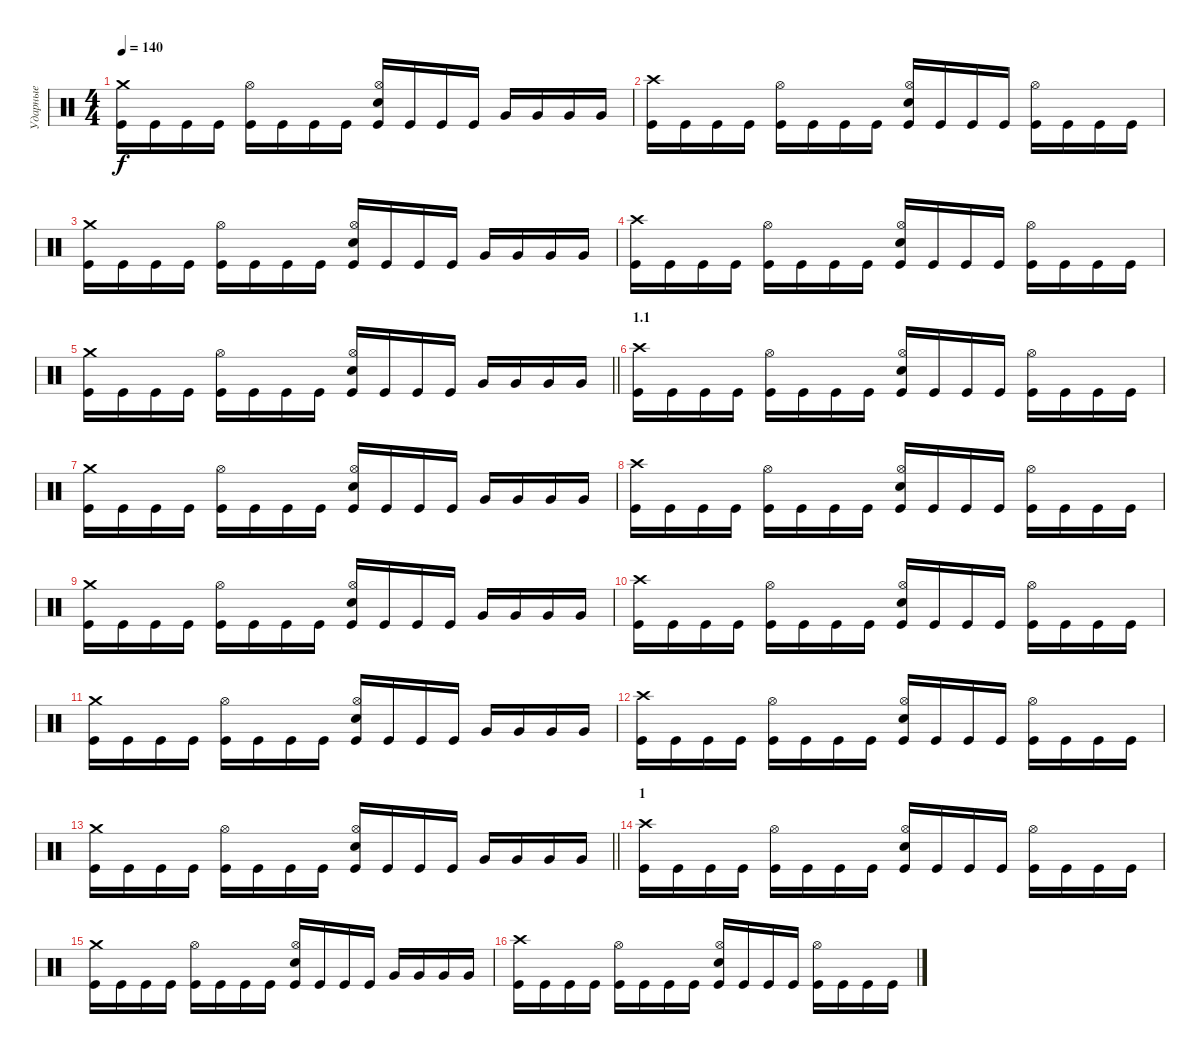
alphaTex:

\track ("Ударные" "Ударные") {instrument percussion}
\staff {score}
\articulation defaults
\ts (4 4)
\tempo 140
\clef neutral
\ks c
("Crash medium (hit)" "Kick (hit)").16{dy f} "Kick (hit)".16 "Kick (hit)".16 "Kick (hit)".16 ("Hi-Hat (open)" "Kick (hit)").16 "Kick (hit)".16 "Kick (hit)".16 "Kick (hit)".16 ("Hi-Hat (open)" "Electric Snare (hit)" "Kick (hit)").16 "Kick (hit)".16 "Kick (hit)".16 "Kick (hit)".16 "Very Low Tom (hit)".16 "Very Low Tom (hit)".16 "Very Low Tom (hit)".16 "Very Low Tom (hit)".16 |
("Crash high (hit)" "Kick (hit)").16 "Kick (hit)".16 "Kick (hit)".16 "Kick (hit)".16 ("Hi-Hat (open)" "Kick (hit)").16 "Kick (hit)".16 "Kick (hit)".16 "Kick (hit)".16 ("Hi-Hat (open)" "Electric Snare (hit)" "Kick (hit)").16 "Kick (hit)".16 "Kick (hit)".16 "Kick (hit)".16 ("Hi-Hat (open)" "Kick (hit)").16 "Kick (hit)".16 "Kick (hit)".16 "Kick (hit)".16 |
("Crash medium (hit)" "Kick (hit)").16 "Kick (hit)".16 "Kick (hit)".16 "Kick (hit)".16 ("Hi-Hat (open)" "Kick (hit)").16 "Kick (hit)".16 "Kick (hit)".16 "Kick (hit)".16 ("Hi-Hat (open)" "Electric Snare (hit)" "Kick (hit)").16 "Kick (hit)".16 "Kick (hit)".16 "Kick (hit)".16 "Very Low Tom (hit)".16 "Very Low Tom (hit)".16 "Very Low Tom (hit)".16 "Very Low Tom (hit)".16 |
("Crash high (hit)" "Kick (hit)").16 "Kick (hit)".16 "Kick (hit)".16 "Kick (hit)".16 ("Hi-Hat (open)" "Kick (hit)").16 "Kick (hit)".16 "Kick (hit)".16 "Kick (hit)".16 ("Hi-Hat (open)" "Electric Snare (hit)" "Kick (hit)").16 "Kick (hit)".16 "Kick (hit)".16 "Kick (hit)".16 ("Hi-Hat (open)" "Kick (hit)").16 "Kick (hit)".16 "Kick (hit)".16 "Kick (hit)".16 |
\barLineRight lightlight
("Crash medium (hit)" "Kick (hit)").16 "Kick (hit)".16 "Kick (hit)".16 "Kick (hit)".16 ("Hi-Hat (open)" "Kick (hit)").16 "Kick (hit)".16 "Kick (hit)".16 "Kick (hit)".16 ("Hi-Hat (open)" "Electric Snare (hit)" "Kick (hit)").16 "Kick (hit)".16 "Kick (hit)".16 "Kick (hit)".16 "Very Low Tom (hit)".16 "Very Low Tom (hit)".16 "Very Low Tom (hit)".16 "Very Low Tom (hit)".16 |
\section ("" "1.1")
("Crash high (hit)" "Kick (hit)").16 "Kick (hit)".16 "Kick (hit)".16 "Kick (hit)".16 ("Hi-Hat (open)" "Kick (hit)").16 "Kick (hit)".16 "Kick (hit)".16 "Kick (hit)".16 ("Hi-Hat (open)" "Electric Snare (hit)" "Kick (hit)").16 "Kick (hit)".16 "Kick (hit)".16 "Kick (hit)".16 ("Hi-Hat (open)" "Kick (hit)").16 "Kick (hit)".16 "Kick (hit)".16 "Kick (hit)".16 |
("Crash medium (hit)" "Kick (hit)").16 "Kick (hit)".16 "Kick (hit)".16 "Kick (hit)".16 ("Hi-Hat (open)" "Kick (hit)").16 "Kick (hit)".16 "Kick (hit)".16 "Kick (hit)".16 ("Hi-Hat (open)" "Electric Snare (hit)" "Kick (hit)").16 "Kick (hit)".16 "Kick (hit)".16 "Kick (hit)".16 "Very Low Tom (hit)".16 "Very Low Tom (hit)".16 "Very Low Tom (hit)".16 "Very Low Tom (hit)".16 |
("Crash high (hit)" "Kick (hit)").16 "Kick (hit)".16 "Kick (hit)".16 "Kick (hit)".16 ("Hi-Hat (open)" "Kick (hit)").16 "Kick (hit)".16 "Kick (hit)".16 "Kick (hit)".16 ("Hi-Hat (open)" "Electric Snare (hit)" "Kick (hit)").16 "Kick (hit)".16 "Kick (hit)".16 "Kick (hit)".16 ("Hi-Hat (open)" "Kick (hit)").16 "Kick (hit)".16 "Kick (hit)".16 "Kick (hit)".16 |
("Crash medium (hit)" "Kick (hit)").16 "Kick (hit)".16 "Kick (hit)".16 "Kick (hit)".16 ("Hi-Hat (open)" "Kick (hit)").16 "Kick (hit)".16 "Kick (hit)".16 "Kick (hit)".16 ("Hi-Hat (open)" "Electric Snare (hit)" "Kick (hit)").16 "Kick (hit)".16 "Kick (hit)".16 "Kick (hit)".16 "Very Low Tom (hit)".16 "Very Low Tom (hit)".16 "Very Low Tom (hit)".16 "Very Low Tom (hit)".16 |
("Crash high (hit)" "Kick (hit)").16 "Kick (hit)".16 "Kick (hit)".16 "Kick (hit)".16 ("Hi-Hat (open)" "Kick (hit)").16 "Kick (hit)".16 "Kick (hit)".16 "Kick (hit)".16 ("Hi-Hat (open)" "Electric Snare (hit)" "Kick (hit)").16 "Kick (hit)".16 "Kick (hit)".16 "Kick (hit)".16 ("Hi-Hat (open)" "Kick (hit)").16 "Kick (hit)".16 "Kick (hit)".16 "Kick (hit)".16 |
("Crash medium (hit)" "Kick (hit)").16 "Kick (hit)".16 "Kick (hit)".16 "Kick (hit)".16 ("Hi-Hat (open)" "Kick (hit)").16 "Kick (hit)".16 "Kick (hit)".16 "Kick (hit)".16 ("Hi-Hat (open)" "Electric Snare (hit)" "Kick (hit)").16 "Kick (hit)".16 "Kick (hit)".16 "Kick (hit)".16 "Very Low Tom (hit)".16 "Very Low Tom (hit)".16 "Very Low Tom (hit)".16 "Very Low Tom (hit)".16 |
("Crash high (hit)" "Kick (hit)").16 "Kick (hit)".16 "Kick (hit)".16 "Kick (hit)".16 ("Hi-Hat (open)" "Kick (hit)").16 "Kick (hit)".16 "Kick (hit)".16 "Kick (hit)".16 ("Hi-Hat (open)" "Electric Snare (hit)" "Kick (hit)").16 "Kick (hit)".16 "Kick (hit)".16 "Kick (hit)".16 ("Hi-Hat (open)" "Kick (hit)").16 "Kick (hit)".16 "Kick (hit)".16 "Kick (hit)".16 |
\barLineRight lightlight
("Crash medium (hit)" "Kick (hit)").16 "Kick (hit)".16 "Kick (hit)".16 "Kick (hit)".16 ("Hi-Hat (open)" "Kick (hit)").16 "Kick (hit)".16 "Kick (hit)".16 "Kick (hit)".16 ("Hi-Hat (open)" "Electric Snare (hit)" "Kick (hit)").16 "Kick (hit)".16 "Kick (hit)".16 "Kick (hit)".16 "Very Low Tom (hit)".16 "Very Low Tom (hit)".16 "Very Low Tom (hit)".16 "Very Low Tom (hit)".16 |
\section ("" "1")
("Crash high (hit)" "Kick (hit)").16 "Kick (hit)".16 "Kick (hit)".16 "Kick (hit)".16 ("Hi-Hat (open)" "Kick (hit)").16 "Kick (hit)".16 "Kick (hit)".16 "Kick (hit)".16 ("Hi-Hat (open)" "Electric Snare (hit)" "Kick (hit)").16 "Kick (hit)".16 "Kick (hit)".16 "Kick (hit)".16 ("Hi-Hat (open)" "Kick (hit)").16 "Kick (hit)".16 "Kick (hit)".16 "Kick (hit)".16 |
("Crash medium (hit)" "Kick (hit)").16 "Kick (hit)".16 "Kick (hit)".16 "Kick (hit)".16 ("Hi-Hat (open)" "Kick (hit)").16 "Kick (hit)".16 "Kick (hit)".16 "Kick (hit)".16 ("Hi-Hat (open)" "Electric Snare (hit)" "Kick (hit)").16 "Kick (hit)".16 "Kick (hit)".16 "Kick (hit)".16 "Very Low Tom (hit)".16 "Very Low Tom (hit)".16 "Very Low Tom (hit)".16 "Very Low Tom (hit)".16 |
("Crash high (hit)" "Kick (hit)").16 "Kick (hit)".16 "Kick (hit)".16 "Kick (hit)".16 ("Hi-Hat (open)" "Kick (hit)").16 "Kick (hit)".16 "Kick (hit)".16 "Kick (hit)".16 ("Hi-Hat (open)" "Electric Snare (hit)" "Kick (hit)").16 "Kick (hit)".16 "Kick (hit)".16 "Kick (hit)".16 ("Hi-Hat (open)" "Kick (hit)").16 "Kick (hit)".16 "Kick (hit)".16 "Kick (hit)".16
